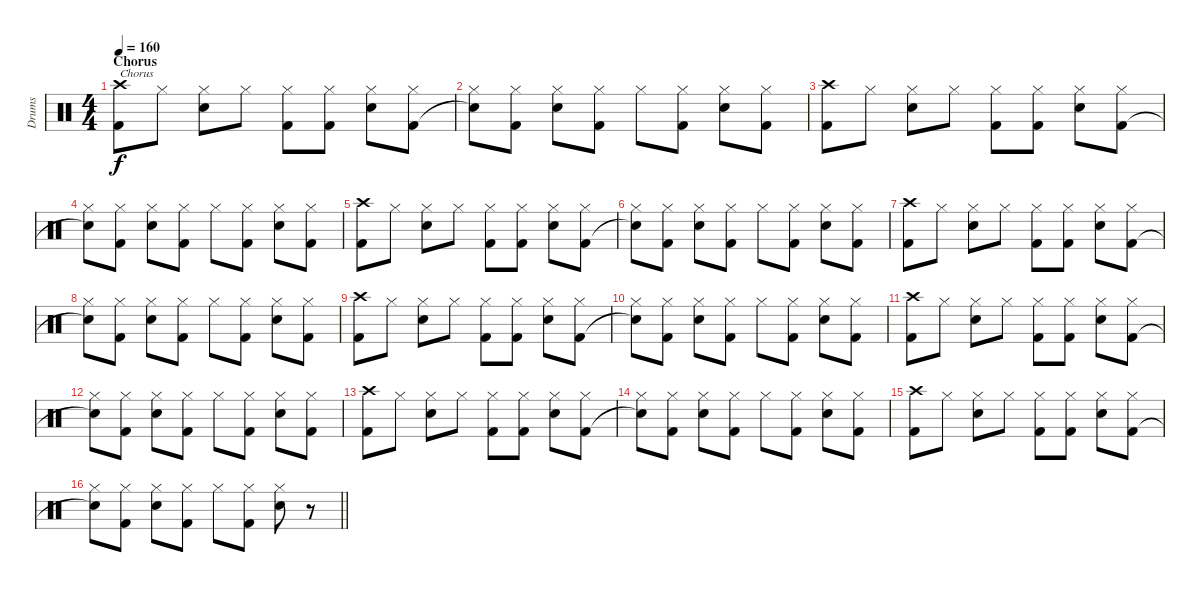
\track ("Drums" "Drums") {instrument percussion}
\staff {score}
\articulation defaults
\ts (4 4)
\section ("" "Chorus")
\tempo 160
\clef neutral
\ks c
("Crash high (hit)" "Kick (hit) 2").8{txt "Chorus" dy f} "Hi-Hat (closed)".8 ("Hi-Hat (closed)" "Electric Snare (hit)").8 "Hi-Hat (closed)".8 ("Hi-Hat (closed)" "Kick (hit) 2").8 ("Hi-Hat (closed)" "Kick (hit) 2").8 ("Hi-Hat (closed)" "Electric Snare (hit)").8 ("Hi-Hat (closed)" "Kick (hit) 2").8 |
("Hi-Hat (closed)" "Snare (hit)"{t}).8 ("Hi-Hat (closed)" "Kick (hit) 2").8 ("Hi-Hat (closed)" "Electric Snare (hit)").8 ("Hi-Hat (closed)" "Kick (hit) 2").8 "Hi-Hat (closed)".8 ("Hi-Hat (closed)" "Kick (hit) 2").8 ("Hi-Hat (closed)" "Electric Snare (hit)").8 ("Hi-Hat (closed)" "Kick (hit) 2").8 |
("Crash high (hit)" "Kick (hit) 2").8 "Hi-Hat (closed)".8 ("Hi-Hat (closed)" "Electric Snare (hit)").8 "Hi-Hat (closed)".8 ("Hi-Hat (closed)" "Kick (hit) 2").8 ("Hi-Hat (closed)" "Kick (hit) 2").8 ("Hi-Hat (closed)" "Electric Snare (hit)").8 ("Hi-Hat (closed)" "Kick (hit) 2").8 |
("Hi-Hat (closed)" "Snare (hit)"{t}).8 ("Hi-Hat (closed)" "Kick (hit) 2").8 ("Hi-Hat (closed)" "Electric Snare (hit)").8 ("Hi-Hat (closed)" "Kick (hit) 2").8 "Hi-Hat (closed)".8 ("Hi-Hat (closed)" "Kick (hit) 2").8 ("Hi-Hat (closed)" "Electric Snare (hit)").8 ("Hi-Hat (closed)" "Kick (hit) 2").8 |
("Crash high (hit)" "Kick (hit) 2").8 "Hi-Hat (closed)".8 ("Hi-Hat (closed)" "Electric Snare (hit)").8 "Hi-Hat (closed)".8 ("Hi-Hat (closed)" "Kick (hit) 2").8 ("Hi-Hat (closed)" "Kick (hit) 2").8 ("Hi-Hat (closed)" "Electric Snare (hit)").8 ("Hi-Hat (closed)" "Kick (hit) 2").8 |
("Hi-Hat (closed)" "Snare (hit)"{t}).8 ("Hi-Hat (closed)" "Kick (hit) 2").8 ("Hi-Hat (closed)" "Electric Snare (hit)").8 ("Hi-Hat (closed)" "Kick (hit) 2").8 "Hi-Hat (closed)".8 ("Hi-Hat (closed)" "Kick (hit) 2").8 ("Hi-Hat (closed)" "Electric Snare (hit)").8 ("Hi-Hat (closed)" "Kick (hit) 2").8 |
("Crash high (hit)" "Kick (hit) 2").8 "Hi-Hat (closed)".8 ("Hi-Hat (closed)" "Electric Snare (hit)").8 "Hi-Hat (closed)".8 ("Hi-Hat (closed)" "Kick (hit) 2").8 ("Hi-Hat (closed)" "Kick (hit) 2").8 ("Hi-Hat (closed)" "Electric Snare (hit)").8 ("Hi-Hat (closed)" "Kick (hit) 2").8 |
("Hi-Hat (closed)" "Snare (hit)"{t}).8 ("Hi-Hat (closed)" "Kick (hit) 2").8 ("Hi-Hat (closed)" "Electric Snare (hit)").8 ("Hi-Hat (closed)" "Kick (hit) 2").8 "Hi-Hat (closed)".8 ("Hi-Hat (closed)" "Kick (hit) 2").8 ("Hi-Hat (closed)" "Electric Snare (hit)").8 ("Hi-Hat (closed)" "Kick (hit) 2").8 |
("Crash high (hit)" "Kick (hit) 2").8 "Hi-Hat (closed)".8 ("Hi-Hat (closed)" "Electric Snare (hit)").8 "Hi-Hat (closed)".8 ("Hi-Hat (closed)" "Kick (hit) 2").8 ("Hi-Hat (closed)" "Kick (hit) 2").8 ("Hi-Hat (closed)" "Electric Snare (hit)").8 ("Hi-Hat (closed)" "Kick (hit) 2").8 |
("Hi-Hat (closed)" "Snare (hit)"{t}).8 ("Hi-Hat (closed)" "Kick (hit) 2").8 ("Hi-Hat (closed)" "Electric Snare (hit)").8 ("Hi-Hat (closed)" "Kick (hit) 2").8 "Hi-Hat (closed)".8 ("Hi-Hat (closed)" "Kick (hit) 2").8 ("Hi-Hat (closed)" "Electric Snare (hit)").8 ("Hi-Hat (closed)" "Kick (hit) 2").8 |
("Crash high (hit)" "Kick (hit) 2").8 "Hi-Hat (closed)".8 ("Hi-Hat (closed)" "Electric Snare (hit)").8 "Hi-Hat (closed)".8 ("Hi-Hat (closed)" "Kick (hit) 2").8 ("Hi-Hat (closed)" "Kick (hit) 2").8 ("Hi-Hat (closed)" "Electric Snare (hit)").8 ("Hi-Hat (closed)" "Kick (hit) 2").8 |
("Hi-Hat (closed)" "Snare (hit)"{t}).8 ("Hi-Hat (closed)" "Kick (hit) 2").8 ("Hi-Hat (closed)" "Electric Snare (hit)").8 ("Hi-Hat (closed)" "Kick (hit) 2").8 "Hi-Hat (closed)".8 ("Hi-Hat (closed)" "Kick (hit) 2").8 ("Hi-Hat (closed)" "Electric Snare (hit)").8 ("Hi-Hat (closed)" "Kick (hit) 2").8 |
("Crash high (hit)" "Kick (hit) 2").8 "Hi-Hat (closed)".8 ("Hi-Hat (closed)" "Electric Snare (hit)").8 "Hi-Hat (closed)".8 ("Hi-Hat (closed)" "Kick (hit) 2").8 ("Hi-Hat (closed)" "Kick (hit) 2").8 ("Hi-Hat (closed)" "Electric Snare (hit)").8 ("Hi-Hat (closed)" "Kick (hit) 2").8 |
("Hi-Hat (closed)" "Snare (hit)"{t}).8 ("Hi-Hat (closed)" "Kick (hit) 2").8 ("Hi-Hat (closed)" "Electric Snare (hit)").8 ("Hi-Hat (closed)" "Kick (hit) 2").8 "Hi-Hat (closed)".8 ("Hi-Hat (closed)" "Kick (hit) 2").8 ("Hi-Hat (closed)" "Electric Snare (hit)").8 ("Hi-Hat (closed)" "Kick (hit) 2").8 |
("Crash high (hit)" "Kick (hit) 2").8 "Hi-Hat (closed)".8 ("Hi-Hat (closed)" "Electric Snare (hit)").8 "Hi-Hat (closed)".8 ("Hi-Hat (closed)" "Kick (hit) 2").8 ("Hi-Hat (closed)" "Kick (hit) 2").8 ("Hi-Hat (closed)" "Electric Snare (hit)").8 ("Hi-Hat (closed)" "Kick (hit) 2").8 |
\barLineRight lightlight
("Hi-Hat (closed)" "Snare (hit)"{t}).8 ("Hi-Hat (closed)" "Kick (hit) 2").8 ("Hi-Hat (closed)" "Electric Snare (hit)").8 ("Hi-Hat (closed)" "Kick (hit) 2").8 "Hi-Hat (closed)".8 ("Hi-Hat (closed)" "Kick (hit) 2").8 ("Hi-Hat (closed)" "Electric Snare (hit)").8 r.8
